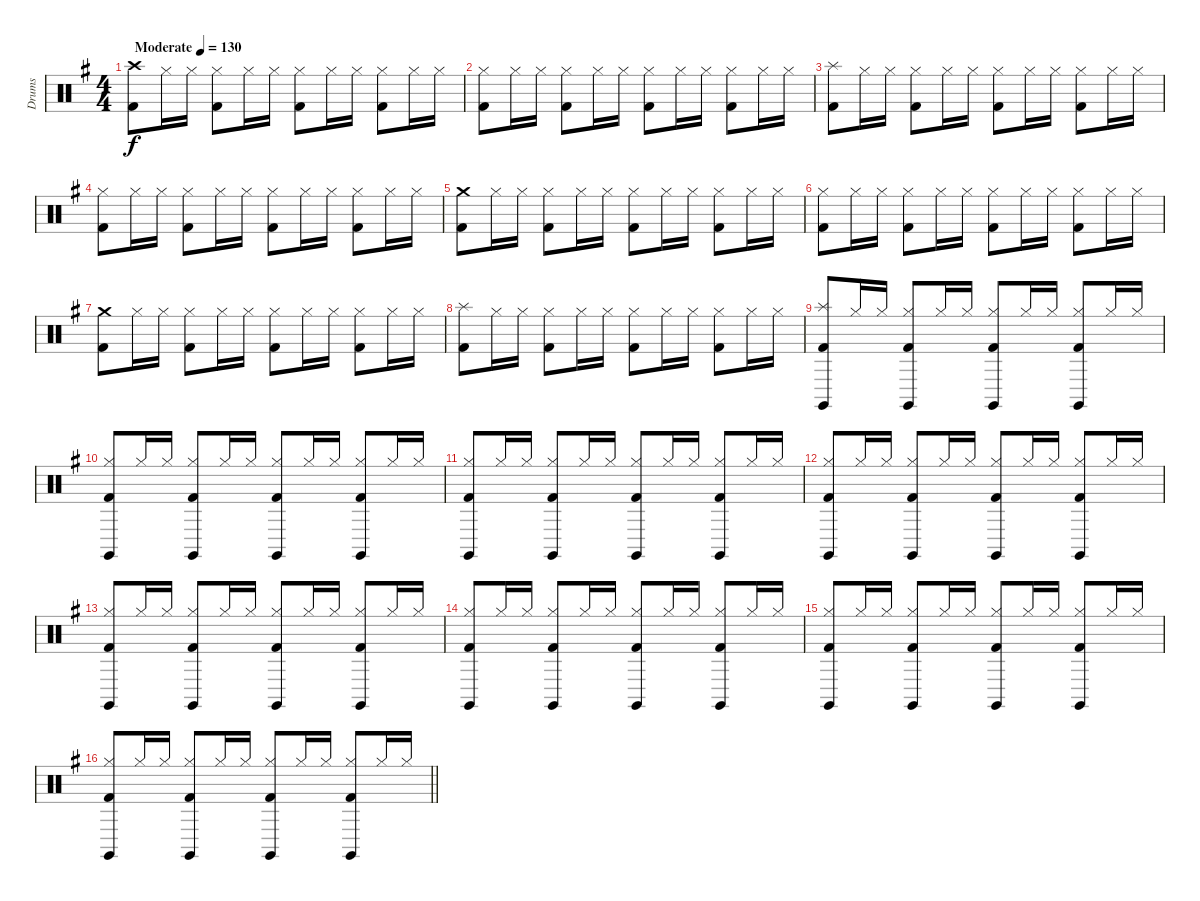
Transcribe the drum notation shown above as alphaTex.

\track ("Drums" "Drums") {instrument percussion}
\staff {score}
\articulation defaults
\ts (4 4)
\tempo (130 "Moderate")
\clef neutral
\ks g
("Crash high (hit)" "Kick (hit) 2").8{dy f} "Hi-Hat (closed)".16 "Hi-Hat (closed)".16 ("Hi-Hat (closed)" "Kick (hit) 2").8 "Hi-Hat (closed)".16 "Hi-Hat (closed)".16 ("Hi-Hat (closed)" "Kick (hit) 2").8 "Hi-Hat (closed)".16 "Hi-Hat (closed)".16 ("Hi-Hat (closed)" "Kick (hit) 2").8 "Hi-Hat (closed)".16 "Hi-Hat (closed)".16 |
("Hi-Hat (closed)" "Kick (hit) 2").8 "Hi-Hat (closed)".16 "Hi-Hat (closed)".16 ("Hi-Hat (closed)" "Kick (hit) 2").8 "Hi-Hat (closed)".16 "Hi-Hat (closed)".16 ("Hi-Hat (closed)" "Kick (hit) 2").8 "Hi-Hat (closed)".16 "Hi-Hat (closed)".16 ("Hi-Hat (closed)" "Kick (hit) 2").8 "Hi-Hat (closed)".16 "Hi-Hat (closed)".16 |
("Splash (hit)" "Kick (hit) 2").8 "Hi-Hat (closed)".16 "Hi-Hat (closed)".16 ("Hi-Hat (closed)" "Kick (hit) 2").8 "Hi-Hat (closed)".16 "Hi-Hat (closed)".16 ("Hi-Hat (closed)" "Kick (hit) 2").8 "Hi-Hat (closed)".16 "Hi-Hat (closed)".16 ("Hi-Hat (closed)" "Kick (hit) 2").8 "Hi-Hat (closed)".16 "Hi-Hat (closed)".16 |
("Hi-Hat (closed)" "Kick (hit) 2").8 "Hi-Hat (closed)".16 "Hi-Hat (closed)".16 ("Hi-Hat (closed)" "Kick (hit) 2").8 "Hi-Hat (closed)".16 "Hi-Hat (closed)".16 ("Hi-Hat (closed)" "Kick (hit) 2").8 "Hi-Hat (closed)".16 "Hi-Hat (closed)".16 ("Hi-Hat (closed)" "Kick (hit) 2").8 "Hi-Hat (closed)".16 "Hi-Hat (closed)".16 |
("Crash medium (hit)" "Kick (hit) 2").8 "Hi-Hat (closed)".16 "Hi-Hat (closed)".16 ("Hi-Hat (closed)" "Kick (hit) 2").8 "Hi-Hat (closed)".16 "Hi-Hat (closed)".16 ("Hi-Hat (closed)" "Kick (hit) 2").8 "Hi-Hat (closed)".16 "Hi-Hat (closed)".16 ("Hi-Hat (closed)" "Kick (hit) 2").8 "Hi-Hat (closed)".16 "Hi-Hat (closed)".16 |
("Hi-Hat (closed)" "Kick (hit) 2").8 "Hi-Hat (closed)".16 "Hi-Hat (closed)".16 ("Hi-Hat (closed)" "Kick (hit) 2").8 "Hi-Hat (closed)".16 "Hi-Hat (closed)".16 ("Hi-Hat (closed)" "Kick (hit) 2").8 "Hi-Hat (closed)".16 "Hi-Hat (closed)".16 ("Hi-Hat (closed)" "Kick (hit) 2").8 "Hi-Hat (closed)".16 "Hi-Hat (closed)".16 |
("Crash medium (hit)" "Kick (hit) 2").8 "Hi-Hat (closed)".16 "Hi-Hat (closed)".16 ("Hi-Hat (closed)" "Kick (hit) 2").8 "Hi-Hat (closed)".16 "Hi-Hat (closed)".16 ("Hi-Hat (closed)" "Kick (hit) 2").8 "Hi-Hat (closed)".16 "Hi-Hat (closed)".16 ("Hi-Hat (closed)" "Kick (hit) 2").8 "Hi-Hat (closed)".16 "Hi-Hat (closed)".16 |
("Splash (hit)" "Kick (hit) 2").8 "Hi-Hat (closed)".16 "Hi-Hat (closed)".16 ("Hi-Hat (closed)" "Kick (hit) 2").8 "Hi-Hat (closed)".16 "Hi-Hat (closed)".16 ("Hi-Hat (closed)" "Kick (hit) 2").8 "Hi-Hat (closed)".16 "Hi-Hat (closed)".16 ("Hi-Hat (closed)" "Kick (hit) 2").8 "Hi-Hat (closed)".16 "Hi-Hat (closed)".16 |
("Splash (hit)" "Claves (hit)" "Kick (hit) 2").8 "Hi-Hat (closed)".16 "Hi-Hat (closed)".16 ("Hi-Hat (closed)" "Claves (hit)" "Kick (hit) 2").8 "Hi-Hat (closed)".16 "Hi-Hat (closed)".16 ("Hi-Hat (closed)" "Claves (hit)" "Kick (hit) 2").8 "Hi-Hat (closed)".16 "Hi-Hat (closed)".16 ("Hi-Hat (closed)" "Claves (hit)" "Kick (hit) 2").8 "Hi-Hat (closed)".16 "Hi-Hat (closed)".16 |
("Hi-Hat (closed)" "Claves (hit)" "Kick (hit) 2").8 "Hi-Hat (closed)".16 "Hi-Hat (closed)".16 ("Hi-Hat (closed)" "Claves (hit)" "Kick (hit) 2").8 "Hi-Hat (closed)".16 "Hi-Hat (closed)".16 ("Hi-Hat (closed)" "Claves (hit)" "Kick (hit) 2").8 "Hi-Hat (closed)".16 "Hi-Hat (closed)".16 ("Hi-Hat (closed)" "Claves (hit)" "Kick (hit) 2").8 "Hi-Hat (closed)".16 "Hi-Hat (closed)".16 |
("Hi-Hat (closed)" "Claves (hit)" "Kick (hit) 2").8 "Hi-Hat (closed)".16 "Hi-Hat (closed)".16 ("Hi-Hat (closed)" "Claves (hit)" "Kick (hit) 2").8 "Hi-Hat (closed)".16 "Hi-Hat (closed)".16 ("Hi-Hat (closed)" "Claves (hit)" "Kick (hit) 2").8 "Hi-Hat (closed)".16 "Hi-Hat (closed)".16 ("Hi-Hat (closed)" "Claves (hit)" "Kick (hit) 2").8 "Hi-Hat (closed)".16 "Hi-Hat (closed)".16 |
("Hi-Hat (closed)" "Claves (hit)" "Kick (hit) 2").8 "Hi-Hat (closed)".16 "Hi-Hat (closed)".16 ("Hi-Hat (closed)" "Claves (hit)" "Kick (hit) 2").8 "Hi-Hat (closed)".16 "Hi-Hat (closed)".16 ("Hi-Hat (closed)" "Claves (hit)" "Kick (hit) 2").8 "Hi-Hat (closed)".16 "Hi-Hat (closed)".16 ("Hi-Hat (closed)" "Claves (hit)" "Kick (hit) 2").8 "Hi-Hat (closed)".16 "Hi-Hat (closed)".16 |
("Hi-Hat (closed)" "Claves (hit)" "Kick (hit) 2").8 "Hi-Hat (closed)".16 "Hi-Hat (closed)".16 ("Hi-Hat (closed)" "Claves (hit)" "Kick (hit) 2").8 "Hi-Hat (closed)".16 "Hi-Hat (closed)".16 ("Hi-Hat (closed)" "Claves (hit)" "Kick (hit) 2").8 "Hi-Hat (closed)".16 "Hi-Hat (closed)".16 ("Hi-Hat (closed)" "Claves (hit)" "Kick (hit) 2").8 "Hi-Hat (closed)".16 "Hi-Hat (closed)".16 |
("Hi-Hat (closed)" "Claves (hit)" "Kick (hit) 2").8 "Hi-Hat (closed)".16 "Hi-Hat (closed)".16 ("Hi-Hat (closed)" "Claves (hit)" "Kick (hit) 2").8 "Hi-Hat (closed)".16 "Hi-Hat (closed)".16 ("Hi-Hat (closed)" "Claves (hit)" "Kick (hit) 2").8 "Hi-Hat (closed)".16 "Hi-Hat (closed)".16 ("Hi-Hat (closed)" "Claves (hit)" "Kick (hit) 2").8 "Hi-Hat (closed)".16 "Hi-Hat (closed)".16 |
("Hi-Hat (closed)" "Claves (hit)" "Kick (hit) 2").8 "Hi-Hat (closed)".16 "Hi-Hat (closed)".16 ("Hi-Hat (closed)" "Claves (hit)" "Kick (hit) 2").8 "Hi-Hat (closed)".16 "Hi-Hat (closed)".16 ("Hi-Hat (closed)" "Claves (hit)" "Kick (hit) 2").8 "Hi-Hat (closed)".16 "Hi-Hat (closed)".16 ("Hi-Hat (closed)" "Claves (hit)" "Kick (hit) 2").8 "Hi-Hat (closed)".16 "Hi-Hat (closed)".16 |
\barLineRight lightlight
("Hi-Hat (closed)" "Claves (hit)" "Kick (hit) 2").8 "Hi-Hat (closed)".16 "Hi-Hat (closed)".16 ("Hi-Hat (closed)" "Claves (hit)" "Kick (hit) 2").8 "Hi-Hat (closed)".16 "Hi-Hat (closed)".16 ("Hi-Hat (closed)" "Claves (hit)" "Kick (hit) 2").8 "Hi-Hat (closed)".16 "Hi-Hat (closed)".16 ("Hi-Hat (closed)" "Claves (hit)" "Kick (hit) 2").8 "Hi-Hat (closed)".16 "Hi-Hat (closed)".16
